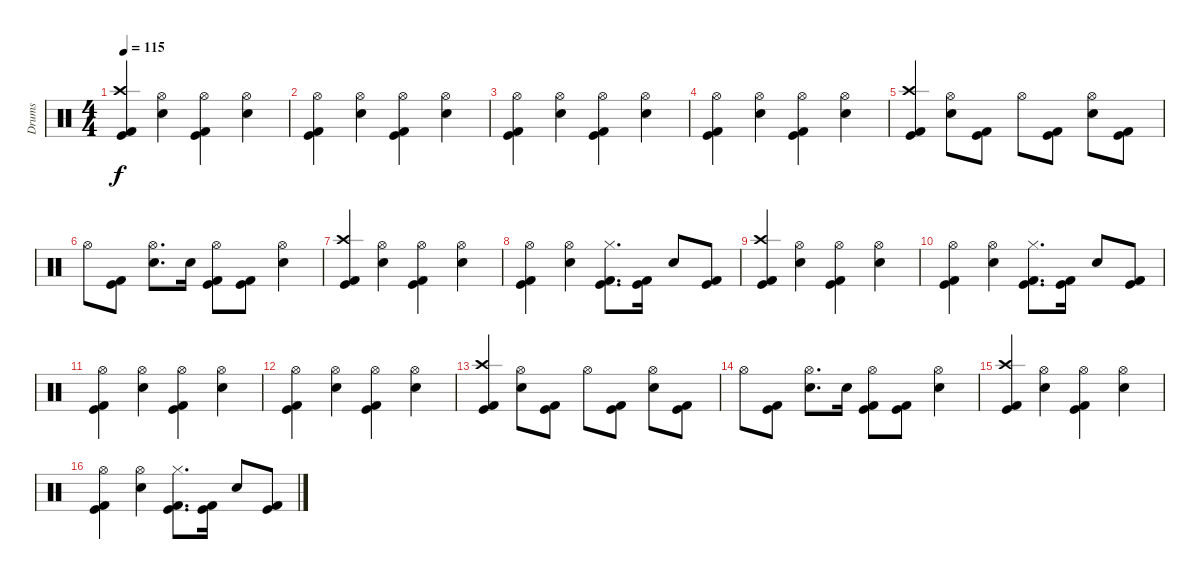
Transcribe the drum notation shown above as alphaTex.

\track ("Drums" "Drums") {instrument percussion}
\staff {score}
\articulation defaults
\ts (4 4)
\section ("" "")
\tempo 115
\clef neutral
\ks c
("Kick (hit) 2" "Crash high (hit)" "Kick (hit)").4{dy f} ("Electric Snare (hit)" "Hi-Hat (open)").4 ("Kick (hit) 2" "Hi-Hat (open)" "Kick (hit)").4 ("Electric Snare (hit)" "Hi-Hat (open)").4 |
("Kick (hit) 2" "Hi-Hat (open)" "Kick (hit)").4 ("Electric Snare (hit)" "Hi-Hat (open)").4 ("Kick (hit) 2" "Hi-Hat (open)" "Kick (hit)").4 ("Electric Snare (hit)" "Hi-Hat (open)").4 |
("Kick (hit) 2" "Hi-Hat (open)" "Kick (hit)").4 ("Electric Snare (hit)" "Hi-Hat (open)").4 ("Kick (hit) 2" "Hi-Hat (open)" "Kick (hit)").4 ("Electric Snare (hit)" "Hi-Hat (open)").4 |
("Kick (hit) 2" "Hi-Hat (open)" "Kick (hit)").4 ("Electric Snare (hit)" "Hi-Hat (open)").4 ("Kick (hit) 2" "Hi-Hat (open)" "Kick (hit)").4 ("Electric Snare (hit)" "Hi-Hat (open)").4 |
("Kick (hit) 2" "Crash high (hit)" "Kick (hit)").4 ("Electric Snare (hit)" "Hi-Hat (open)").8 ("Kick (hit) 2" "Kick (hit)").8 "Hi-Hat (open)".8 ("Kick (hit) 2" "Kick (hit)").8 ("Electric Snare (hit)" "Hi-Hat (open)").8 ("Kick (hit) 2" "Kick (hit)").8 |
"Hi-Hat (open)".8 ("Kick (hit) 2" "Kick (hit)").8 ("Electric Snare (hit)" "Hi-Hat (open)").8{d} "Electric Snare (hit)".16 ("Kick (hit) 2" "Hi-Hat (open)" "Kick (hit)").8 ("Kick (hit) 2" "Kick (hit)").8 ("Electric Snare (hit)" "Hi-Hat (open)").4 |
("Kick (hit) 2" "Crash high (hit)" "Kick (hit)").4 ("Electric Snare (hit)" "Hi-Hat (open)").4 ("Kick (hit) 2" "Hi-Hat (open)" "Kick (hit)").4 ("Electric Snare (hit)" "Hi-Hat (open)").4 |
("Kick (hit) 2" "Hi-Hat (open)" "Kick (hit)").4 ("Electric Snare (hit)" "Hi-Hat (open)").4 ("Kick (hit) 2" "Hi-Hat (closed)" "Kick (hit)").8{d} ("Kick (hit) 2" "Kick (hit)").16 "Electric Snare (hit)".8 ("Kick (hit) 2" "Kick (hit)").8 |
("Kick (hit) 2" "Crash high (hit)" "Kick (hit)").4 ("Electric Snare (hit)" "Hi-Hat (open)").4 ("Kick (hit) 2" "Hi-Hat (open)" "Kick (hit)").4 ("Electric Snare (hit)" "Hi-Hat (open)").4 |
("Kick (hit) 2" "Hi-Hat (open)" "Kick (hit)").4 ("Electric Snare (hit)" "Hi-Hat (open)").4 ("Kick (hit) 2" "Hi-Hat (closed)" "Kick (hit)").8{d} ("Kick (hit) 2" "Kick (hit)").16 "Electric Snare (hit)".8 ("Kick (hit) 2" "Kick (hit)").8 |
("Kick (hit) 2" "Hi-Hat (open)" "Kick (hit)").4 ("Electric Snare (hit)" "Hi-Hat (open)").4 ("Kick (hit) 2" "Hi-Hat (open)" "Kick (hit)").4 ("Electric Snare (hit)" "Hi-Hat (open)").4 |
("Kick (hit) 2" "Hi-Hat (open)" "Kick (hit)").4 ("Electric Snare (hit)" "Hi-Hat (open)").4 ("Kick (hit) 2" "Hi-Hat (open)" "Kick (hit)").4 ("Electric Snare (hit)" "Hi-Hat (open)").4 |
("Kick (hit) 2" "Crash high (hit)" "Kick (hit)").4 ("Electric Snare (hit)" "Hi-Hat (open)").8 ("Kick (hit) 2" "Kick (hit)").8 "Hi-Hat (open)".8 ("Kick (hit) 2" "Kick (hit)").8 ("Electric Snare (hit)" "Hi-Hat (open)").8 ("Kick (hit) 2" "Kick (hit)").8 |
"Hi-Hat (open)".8 ("Kick (hit) 2" "Kick (hit)").8 ("Electric Snare (hit)" "Hi-Hat (open)").8{d} "Electric Snare (hit)".16 ("Kick (hit) 2" "Hi-Hat (open)" "Kick (hit)").8 ("Kick (hit) 2" "Kick (hit)").8 ("Electric Snare (hit)" "Hi-Hat (open)").4 |
("Kick (hit) 2" "Crash high (hit)" "Kick (hit)").4 ("Electric Snare (hit)" "Hi-Hat (open)").4 ("Kick (hit) 2" "Hi-Hat (open)" "Kick (hit)").4 ("Electric Snare (hit)" "Hi-Hat (open)").4 |
("Kick (hit) 2" "Hi-Hat (open)" "Kick (hit)").4 ("Electric Snare (hit)" "Hi-Hat (open)").4 ("Kick (hit) 2" "Hi-Hat (closed)" "Kick (hit)").8{d} ("Kick (hit) 2" "Kick (hit)").16 "Electric Snare (hit)".8 ("Kick (hit) 2" "Kick (hit)").8
